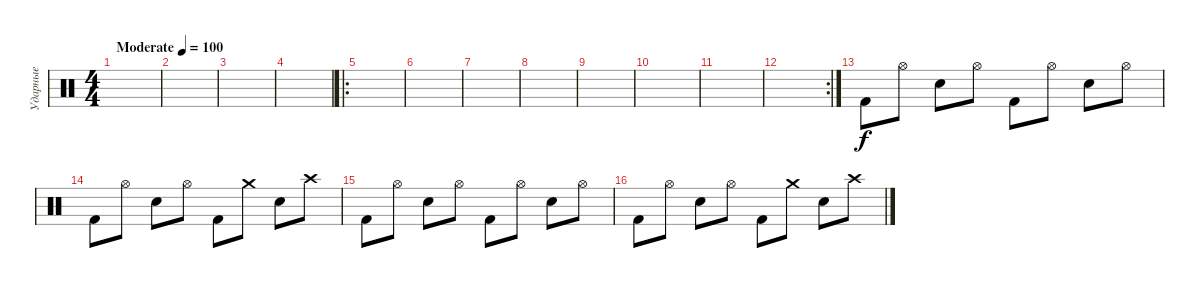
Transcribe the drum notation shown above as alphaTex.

\track ("Ударные" "Ударные") {instrument percussion}
\staff {score}
\articulation defaults
\ts (4 4)
\tempo (100 "Moderate")
\clef neutral
\ks c
|
|
|
|
\ro
|
|
|
|
|
|
|
\rc 2
|
"Kick (hit) 2".8 "Hi-Hat (open)".8 "Electric Snare (hit)".8 "Hi-Hat (open)".8 "Kick (hit) 2".8 "Hi-Hat (open)".8 "Electric Snare (hit)".8 "Hi-Hat (open)".8 |
"Kick (hit) 2".8 "Hi-Hat (open)".8 "Electric Snare (hit)".8 "Hi-Hat (open)".8 "Kick (hit) 2".8 "Crash medium (hit)".8 "Electric Snare (hit)".8 "Crash high (hit)".8 |
"Kick (hit) 2".8 "Hi-Hat (open)".8 "Electric Snare (hit)".8 "Hi-Hat (open)".8 "Kick (hit) 2".8 "Hi-Hat (open)".8 "Electric Snare (hit)".8 "Hi-Hat (open)".8 |
"Kick (hit) 2".8 "Hi-Hat (open)".8 "Electric Snare (hit)".8 "Hi-Hat (open)".8 "Kick (hit) 2".8 "Crash medium (hit)".8 "Electric Snare (hit)".8 "Crash high (hit)".8
